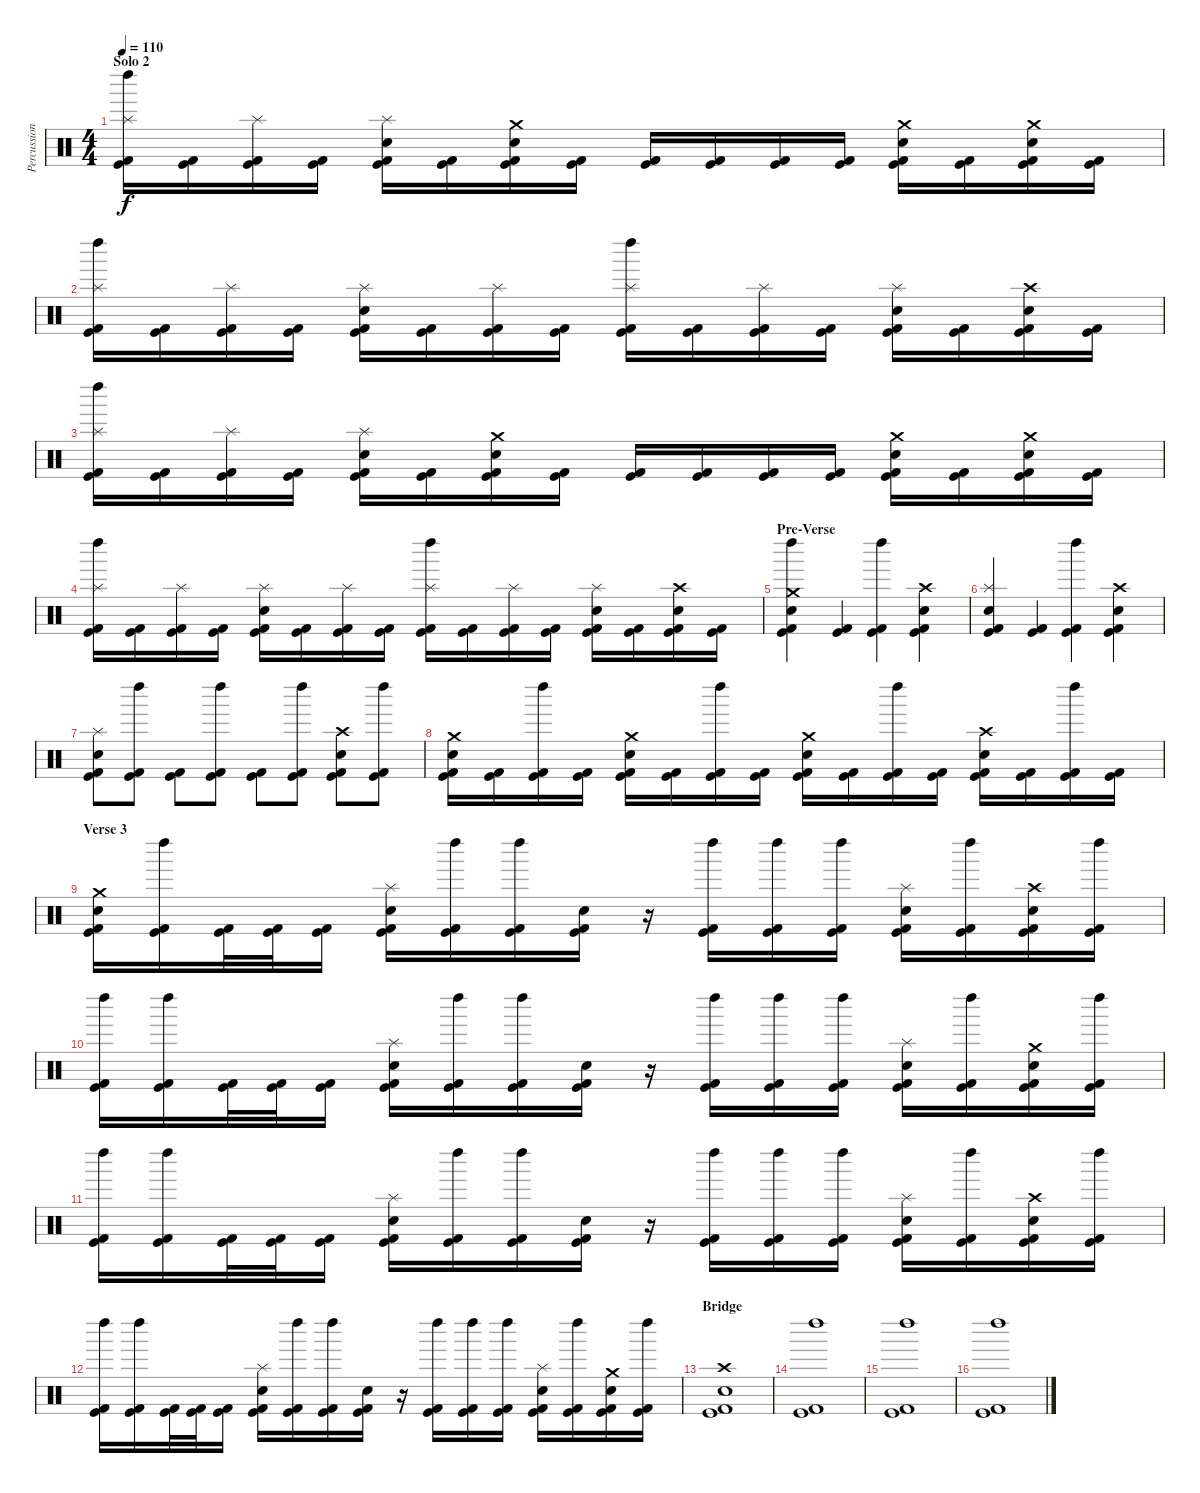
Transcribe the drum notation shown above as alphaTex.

\track ("Percussions" "Percussion") {instrument percussion}
\staff {score}
\articulation defaults
\ts (4 4)
\section ("" "Solo 2")
\tempo 110
\clef neutral
\ks c
("Kick (hit)" "Kick (hit) 2" "Splash (hit)" "Left Maraca (hit)").16{dy f} ("Kick (hit)" "Kick (hit) 2").16 ("Kick (hit)" "Kick (hit) 2" "Splash (hit)").16 ("Kick (hit)" "Kick (hit) 2").16 ("Kick (hit)" "Kick (hit) 2" "Splash (hit)" "Electric Snare (hit)").16 ("Kick (hit)" "Kick (hit) 2").16 ("Kick (hit)" "Kick (hit) 2" "Electric Snare (hit)" "Crash medium (hit)").16 ("Kick (hit)" "Kick (hit) 2").16 ("Kick (hit)" "Kick (hit) 2").16 ("Kick (hit)" "Kick (hit) 2").16 ("Kick (hit)" "Kick (hit) 2").16 ("Kick (hit)" "Kick (hit) 2").16 ("Kick (hit)" "Kick (hit) 2" "Electric Snare (hit)" "Crash medium (hit)").16 ("Kick (hit)" "Kick (hit) 2").16 ("Kick (hit)" "Kick (hit) 2" "Electric Snare (hit)" "Crash medium (hit)").16 ("Kick (hit)" "Kick (hit) 2").16 |
("Kick (hit)" "Kick (hit) 2" "Splash (hit)" "Left Maraca (hit)").16 ("Kick (hit)" "Kick (hit) 2").16 ("Kick (hit)" "Kick (hit) 2" "Splash (hit)").16 ("Kick (hit)" "Kick (hit) 2").16 ("Kick (hit)" "Kick (hit) 2" "Splash (hit)" "Electric Snare (hit)").16 ("Kick (hit)" "Kick (hit) 2").16 ("Kick (hit)" "Kick (hit) 2" "Splash (hit)").16 ("Kick (hit)" "Kick (hit) 2").16 ("Kick (hit)" "Kick (hit) 2" "Splash (hit)" "Left Maraca (hit)").16 ("Kick (hit)" "Kick (hit) 2").16 ("Kick (hit)" "Kick (hit) 2" "Splash (hit)").16 ("Kick (hit)" "Kick (hit) 2").16 ("Kick (hit)" "Kick (hit) 2" "Splash (hit)" "Electric Snare (hit)").16 ("Kick (hit)" "Kick (hit) 2").16 ("Kick (hit)" "Kick (hit) 2" "Crash high (hit)" "Electric Snare (hit)").16 ("Kick (hit)" "Kick (hit) 2").16 |
("Kick (hit)" "Kick (hit) 2" "Splash (hit)" "Left Maraca (hit)").16 ("Kick (hit)" "Kick (hit) 2").16 ("Kick (hit)" "Kick (hit) 2" "Splash (hit)").16 ("Kick (hit)" "Kick (hit) 2").16 ("Kick (hit)" "Kick (hit) 2" "Splash (hit)" "Electric Snare (hit)").16 ("Kick (hit)" "Kick (hit) 2").16 ("Kick (hit)" "Kick (hit) 2" "Electric Snare (hit)" "Crash medium (hit)").16 ("Kick (hit)" "Kick (hit) 2").16 ("Kick (hit)" "Kick (hit) 2").16 ("Kick (hit)" "Kick (hit) 2").16 ("Kick (hit)" "Kick (hit) 2").16 ("Kick (hit)" "Kick (hit) 2").16 ("Kick (hit)" "Kick (hit) 2" "Electric Snare (hit)" "Crash medium (hit)").16 ("Kick (hit)" "Kick (hit) 2").16 ("Kick (hit)" "Kick (hit) 2" "Electric Snare (hit)" "Crash medium (hit)").16 ("Kick (hit)" "Kick (hit) 2").16 |
("Kick (hit)" "Kick (hit) 2" "Splash (hit)" "Left Maraca (hit)").16 ("Kick (hit)" "Kick (hit) 2").16 ("Kick (hit)" "Kick (hit) 2" "Splash (hit)").16 ("Kick (hit)" "Kick (hit) 2").16 ("Kick (hit)" "Kick (hit) 2" "Splash (hit)" "Electric Snare (hit)").16 ("Kick (hit)" "Kick (hit) 2").16 ("Kick (hit)" "Kick (hit) 2" "Splash (hit)").16 ("Kick (hit)" "Kick (hit) 2").16 ("Kick (hit)" "Kick (hit) 2" "Splash (hit)" "Left Maraca (hit)").16 ("Kick (hit)" "Kick (hit) 2").16 ("Kick (hit)" "Kick (hit) 2" "Splash (hit)").16 ("Kick (hit)" "Kick (hit) 2").16 ("Kick (hit)" "Kick (hit) 2" "Splash (hit)" "Electric Snare (hit)").16 ("Kick (hit)" "Kick (hit) 2").16 ("Kick (hit)" "Kick (hit) 2" "Crash high (hit)" "Electric Snare (hit)").16 ("Kick (hit)" "Kick (hit) 2").16 |
\section ("" "Pre-Verse")
("Kick (hit)" "Kick (hit) 2" "Left Maraca (hit)" "Electric Snare (hit)" "Crash medium (hit)").4 ("Kick (hit)" "Kick (hit) 2").4 ("Kick (hit)" "Kick (hit) 2" "Left Maraca (hit)").4 ("Kick (hit)" "Kick (hit) 2" "Electric Snare (hit)" "Crash high (hit)").4 |
("Kick (hit)" "Kick (hit) 2" "Electric Snare (hit)" "Splash (hit)").4 ("Kick (hit)" "Kick (hit) 2").4 ("Kick (hit)" "Kick (hit) 2" "Left Maraca (hit)").4 ("Kick (hit)" "Kick (hit) 2" "Electric Snare (hit)" "Crash high (hit)").4 |
("Kick (hit)" "Kick (hit) 2" "Electric Snare (hit)" "Splash (hit)").8 ("Kick (hit)" "Kick (hit) 2" "Left Maraca (hit)").8 ("Kick (hit)" "Kick (hit) 2").8 ("Kick (hit)" "Kick (hit) 2" "Left Maraca (hit)").8 ("Kick (hit)" "Kick (hit) 2").8 ("Kick (hit)" "Kick (hit) 2" "Left Maraca (hit)").8 ("Kick (hit)" "Kick (hit) 2" "Electric Snare (hit)" "Crash high (hit)").8 ("Kick (hit)" "Kick (hit) 2" "Left Maraca (hit)").8 |
("Kick (hit)" "Kick (hit) 2" "Electric Snare (hit)" "Crash medium (hit)").16 ("Kick (hit)" "Kick (hit) 2").16 ("Kick (hit)" "Kick (hit) 2" "Left Maraca (hit)").16 ("Kick (hit)" "Kick (hit) 2").16 ("Kick (hit)" "Kick (hit) 2" "Electric Snare (hit)" "Crash medium (hit)").16 ("Kick (hit)" "Kick (hit) 2").16 ("Kick (hit)" "Kick (hit) 2" "Left Maraca (hit)").16 ("Kick (hit)" "Kick (hit) 2").16 ("Kick (hit)" "Kick (hit) 2" "Electric Snare (hit)" "Crash medium (hit)").16 ("Kick (hit)" "Kick (hit) 2").16 ("Kick (hit)" "Kick (hit) 2" "Left Maraca (hit)").16 ("Kick (hit)" "Kick (hit) 2").16 ("Kick (hit)" "Kick (hit) 2" "Electric Snare (hit)" "Crash high (hit)").16 ("Kick (hit)" "Kick (hit) 2").16 ("Kick (hit)" "Kick (hit) 2" "Left Maraca (hit)").16 ("Kick (hit)" "Kick (hit) 2").16 |
\section ("" "Verse 3")
("Kick (hit)" "Kick (hit) 2" "Electric Snare (hit)" "Crash medium (hit)").16 ("Kick (hit)" "Kick (hit) 2" "Left Maraca (hit)").16 ("Kick (hit)" "Kick (hit) 2").32 ("Kick (hit)" "Kick (hit) 2").32 ("Kick (hit)" "Kick (hit) 2").16 ("Kick (hit)" "Kick (hit) 2" "Electric Snare (hit)" "Splash (hit)").16 ("Kick (hit)" "Kick (hit) 2" "Left Maraca (hit)").16 ("Kick (hit)" "Kick (hit) 2" "Left Maraca (hit)").16 ("Kick (hit)" "Kick (hit) 2" "Electric Snare (hit)").16 r.16 ("Kick (hit)" "Kick (hit) 2" "Left Maraca (hit)").16 ("Kick (hit)" "Kick (hit) 2" "Left Maraca (hit)").16 ("Kick (hit)" "Kick (hit) 2" "Left Maraca (hit)").16 ("Kick (hit)" "Kick (hit) 2" "Electric Snare (hit)" "Splash (hit)").16 ("Kick (hit)" "Kick (hit) 2" "Left Maraca (hit)").16 ("Kick (hit)" "Kick (hit) 2" "Electric Snare (hit)" "Crash high (hit)").16 ("Kick (hit)" "Kick (hit) 2" "Left Maraca (hit)").16 |
("Kick (hit)" "Kick (hit) 2" "Left Maraca (hit)").16 ("Kick (hit)" "Kick (hit) 2" "Left Maraca (hit)").16 ("Kick (hit)" "Kick (hit) 2").32 ("Kick (hit)" "Kick (hit) 2").32 ("Kick (hit)" "Kick (hit) 2").16 ("Kick (hit)" "Kick (hit) 2" "Electric Snare (hit)" "Splash (hit)").16 ("Kick (hit)" "Kick (hit) 2" "Left Maraca (hit)").16 ("Kick (hit)" "Kick (hit) 2" "Left Maraca (hit)").16 ("Kick (hit)" "Kick (hit) 2" "Electric Snare (hit)").16 r.16 ("Kick (hit)" "Kick (hit) 2" "Left Maraca (hit)").16 ("Kick (hit)" "Kick (hit) 2" "Left Maraca (hit)").16 ("Kick (hit)" "Kick (hit) 2" "Left Maraca (hit)").16 ("Kick (hit)" "Kick (hit) 2" "Electric Snare (hit)" "Splash (hit)").16 ("Kick (hit)" "Kick (hit) 2" "Left Maraca (hit)").16 ("Kick (hit)" "Kick (hit) 2" "Electric Snare (hit)" "Crash medium (hit)").16 ("Kick (hit)" "Kick (hit) 2" "Left Maraca (hit)").16 |
("Kick (hit)" "Kick (hit) 2" "Left Maraca (hit)").16 ("Kick (hit)" "Kick (hit) 2" "Left Maraca (hit)").16 ("Kick (hit)" "Kick (hit) 2").32 ("Kick (hit)" "Kick (hit) 2").32 ("Kick (hit)" "Kick (hit) 2").16 ("Kick (hit)" "Kick (hit) 2" "Electric Snare (hit)" "Splash (hit)").16 ("Kick (hit)" "Kick (hit) 2" "Left Maraca (hit)").16 ("Kick (hit)" "Kick (hit) 2" "Left Maraca (hit)").16 ("Kick (hit)" "Kick (hit) 2" "Electric Snare (hit)").16 r.16 ("Kick (hit)" "Kick (hit) 2" "Left Maraca (hit)").16 ("Kick (hit)" "Kick (hit) 2" "Left Maraca (hit)").16 ("Kick (hit)" "Kick (hit) 2" "Left Maraca (hit)").16 ("Kick (hit)" "Kick (hit) 2" "Electric Snare (hit)" "Splash (hit)").16 ("Kick (hit)" "Kick (hit) 2" "Left Maraca (hit)").16 ("Kick (hit)" "Kick (hit) 2" "Electric Snare (hit)" "Crash high (hit)").16 ("Kick (hit)" "Kick (hit) 2" "Left Maraca (hit)").16 |
("Kick (hit)" "Kick (hit) 2" "Left Maraca (hit)").16 ("Kick (hit)" "Kick (hit) 2" "Left Maraca (hit)").16 ("Kick (hit)" "Kick (hit) 2").32 ("Kick (hit)" "Kick (hit) 2").32 ("Kick (hit)" "Kick (hit) 2").16 ("Kick (hit)" "Kick (hit) 2" "Electric Snare (hit)" "Splash (hit)").16 ("Kick (hit)" "Kick (hit) 2" "Left Maraca (hit)").16 ("Kick (hit)" "Kick (hit) 2" "Left Maraca (hit)").16 ("Kick (hit)" "Kick (hit) 2" "Electric Snare (hit)").16 r.16 ("Kick (hit)" "Kick (hit) 2" "Left Maraca (hit)").16 ("Kick (hit)" "Kick (hit) 2" "Left Maraca (hit)").16 ("Kick (hit)" "Kick (hit) 2" "Left Maraca (hit)").16 ("Kick (hit)" "Kick (hit) 2" "Electric Snare (hit)" "Splash (hit)").16 ("Kick (hit)" "Kick (hit) 2" "Left Maraca (hit)").16 ("Kick (hit)" "Kick (hit) 2" "Electric Snare (hit)" "Crash medium (hit)").16 ("Kick (hit)" "Kick (hit) 2" "Left Maraca (hit)").16 |
\section ("" "Bridge")
("Kick (hit)" "Kick (hit) 2" "Electric Snare (hit)" "Crash high (hit)").1 |
("Kick (hit)" "Kick (hit) 2" "Left Maraca (hit)").1 |
("Kick (hit)" "Kick (hit) 2" "Left Maraca (hit)").1 |
("Kick (hit)" "Kick (hit) 2" "Left Maraca (hit)").1
